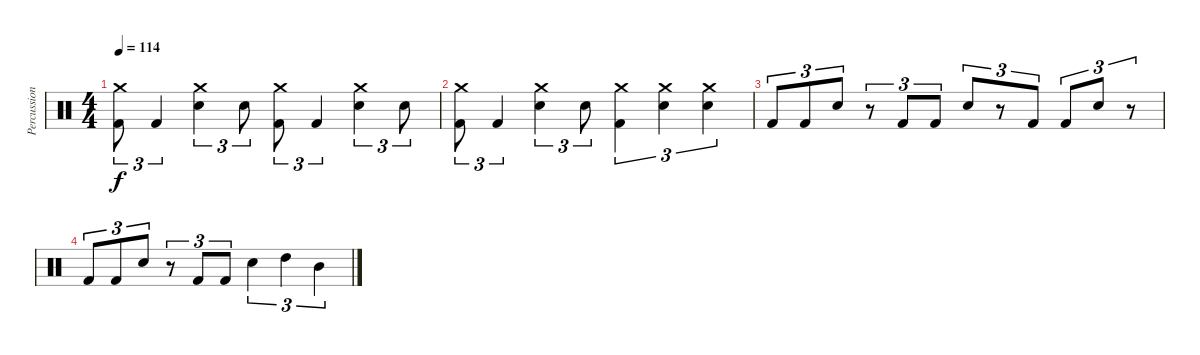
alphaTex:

\track ("Percussion" "Percussion") {instrument percussion}
\staff {score}
\articulation defaults
\ts (4 4)
\tempo 114
\clef neutral
\ks c
("Crash medium (hit)" "Kick (hit) 2").8{tu (3 2) dy f} "Kick (hit) 2".4{tu (3 2)} ("Crash medium (hit)" "Electric Snare (hit)").4{tu (3 2)} "Electric Snare (hit)".8{tu (3 2)} ("Crash medium (hit)" "Kick (hit) 2").8{tu (3 2)} "Kick (hit) 2".4{tu (3 2)} ("Crash medium (hit)" "Electric Snare (hit)").4{tu (3 2)} "Electric Snare (hit)".8{tu (3 2)} |
("Crash medium (hit)" "Kick (hit) 2").8{tu (3 2)} "Kick (hit) 2".4{tu (3 2)} ("Crash medium (hit)" "Electric Snare (hit)").4{tu (3 2)} "Electric Snare (hit)".8{tu (3 2)} ("Crash medium (hit)" "Kick (hit) 2").4{tu (3 2)} ("Crash medium (hit)" "Electric Snare (hit)").4{tu (3 2)} ("Crash medium (hit)" "Electric Snare (hit)").4{tu (3 2)} |
"Kick (hit) 2".8{tu (3 2)} "Kick (hit) 2".8{tu (3 2)} "Electric Snare (hit)".8{tu (3 2)} r.8{tu (3 2)} "Kick (hit) 2".8{tu (3 2)} "Kick (hit) 2".8{tu (3 2)} "Electric Snare (hit)".8{tu (3 2)} r.8{tu (3 2)} "Kick (hit) 2".8{tu (3 2)} "Kick (hit) 2".8{tu (3 2)} "Electric Snare (hit)".8{tu (3 2)} r.8{tu (3 2)} |
"Kick (hit) 2".8{tu (3 2)} "Kick (hit) 2".8{tu (3 2)} "Electric Snare (hit)".8{tu (3 2)} r.8{tu (3 2)} "Kick (hit) 2".8{tu (3 2)} "Kick (hit) 2".8{tu (3 2)} "Electric Snare (hit)".4{tu (3 2)} "High Tom (hit)".4{tu (3 2)} "Mid Tom (hit)".4{tu (3 2)}
